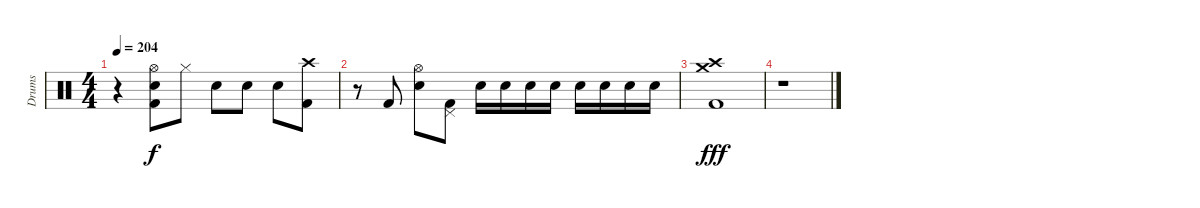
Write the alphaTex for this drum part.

\track ("Drums" "Drums") {instrument percussion}
\staff {score}
\articulation defaults
\ts (4 4)
\tempo 204
\clef neutral
\ks c
r.4{dy f} ("Electric Snare (hit)" "Kick (hit) 2" "Hi-Hat (open)").8 "Hi-Hat (closed)".8 "Electric Snare (hit)".8 "Electric Snare (hit)".8 "Electric Snare (hit)".8 ("Kick (hit) 2" "Crash high (hit)").8 |
r.8 "Kick (hit) 2".8 ("Snare (hit) 2" "Hi-Hat (open)").8 ("Kick (hit) 2" "Pedal Hi-Hat (hit)").8 "Electric Snare (hit)".16 "Electric Snare (hit)".16 "Electric Snare (hit)".16 "Electric Snare (hit)".16 "Electric Snare (hit)".16 "Electric Snare (hit)".16 "Electric Snare (hit)".16 "Electric Snare (hit)".16 |
("Crash high (hit)" "Crash medium (hit)" "Kick (hit) 2").1{dy fff} |
r.1
